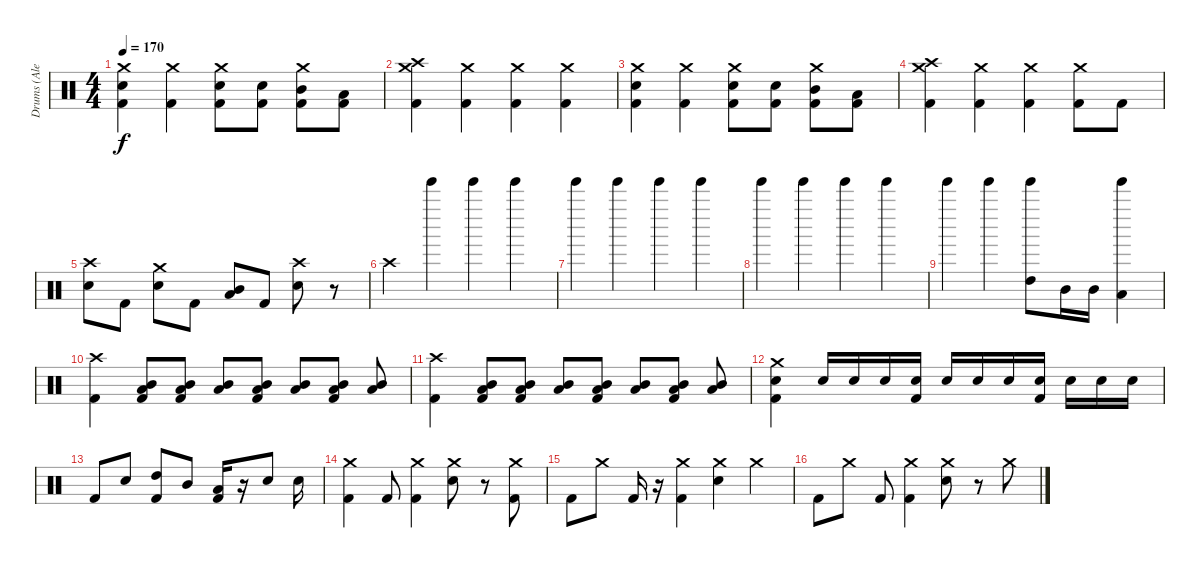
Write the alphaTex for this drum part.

\track ("Drums (Alex Shelnutt)" "Drums (Ale") {instrument percussion}
\staff {score}
\articulation defaults
\ts (4 4)
\tempo 170
\clef neutral
\ks c
("Crash medium (hit)" "Electric Snare (hit)" "Kick (hit) 2").4{dy f} ("Crash medium (hit)" "Kick (hit) 2").4 ("Crash medium (hit)" "Electric Snare (hit)" "Kick (hit) 2").8 ("Electric Snare (hit)" "Kick (hit) 2").8 ("Crash medium (hit)" "Mid Tom (hit)" "Kick (hit) 2").8 ("Low Tom (hit)" "Kick (hit) 2").8 |
("Crash high (hit)" "Crash medium (hit)" "Kick (hit) 2").4 ("Crash medium (hit)" "Kick (hit) 2").4 ("Crash medium (hit)" "Kick (hit) 2").4 ("Crash medium (hit)" "Kick (hit) 2").4 |
("Crash medium (hit)" "Electric Snare (hit)" "Kick (hit) 2").4 ("Crash medium (hit)" "Kick (hit) 2").4 ("Crash medium (hit)" "Electric Snare (hit)" "Kick (hit) 2").8 ("Electric Snare (hit)" "Kick (hit) 2").8 ("Crash medium (hit)" "Mid Tom (hit)" "Kick (hit) 2").8 ("Low Tom (hit)" "Kick (hit) 2").8 |
("Crash high (hit)" "Crash medium (hit)" "Kick (hit) 2").4 ("Crash medium (hit)" "Kick (hit) 2").4 ("Crash medium (hit)" "Kick (hit) 2").4 ("Crash medium (hit)" "Kick (hit) 2").8 "Kick (hit) 2".8 |
("Crash high (hit)" "Electric Snare (hit)").8 "Kick (hit) 2".8 ("Crash medium (hit)" "Electric Snare (hit)").8 "Kick (hit) 2".8 ("Mid Tom (hit)" "Low Tom (hit)").8 "Kick (hit) 2".8 ("Crash high (hit)" "Electric Snare (hit)").8 r.8 |
"Crash high (hit)".4 "Tinkle Bell (hit)".4 "Tinkle Bell (hit)".4 "Tinkle Bell (hit)".4 |
"Tinkle Bell (hit)".4 "Tinkle Bell (hit)".4 "Tinkle Bell (hit)".4 "Tinkle Bell (hit)".4 |
"Tinkle Bell (hit)".4 "Tinkle Bell (hit)".4 "Tinkle Bell (hit)".4 "Tinkle Bell (hit)".4 |
"Tinkle Bell (hit)".4 "Tinkle Bell (hit)".4 ("Tinkle Bell (hit)" "High Tom (hit)").8 "Mid Tom (hit)".16 "Mid Tom (hit)".16 ("Tinkle Bell (hit)" "Low Tom (hit)").4 |
("Crash high (hit)" "Kick (hit) 2").4 ("Mid Tom (hit)" "Low Tom (hit)" "Kick (hit) 2").8 ("Mid Tom (hit)" "Low Tom (hit)" "Kick (hit) 2").8 ("Mid Tom (hit)" "Low Tom (hit)").8 ("Mid Tom (hit)" "Low Tom (hit)" "Kick (hit) 2").8 ("Mid Tom (hit)" "Low Tom (hit)").8 ("Mid Tom (hit)" "Low Tom (hit)" "Kick (hit) 2").8 ("Mid Tom (hit)" "Low Tom (hit)").8 |
("Crash high (hit)" "Kick (hit) 2").4 ("Mid Tom (hit)" "Low Tom (hit)" "Kick (hit) 2").8 ("Mid Tom (hit)" "Low Tom (hit)" "Kick (hit) 2").8 ("Mid Tom (hit)" "Low Tom (hit)").8 ("Mid Tom (hit)" "Low Tom (hit)" "Kick (hit) 2").8 ("Mid Tom (hit)" "Low Tom (hit)").8 ("Mid Tom (hit)" "Low Tom (hit)" "Kick (hit) 2").8 ("Mid Tom (hit)" "Low Tom (hit)").8 |
("Crash medium (hit)" "Electric Snare (hit)" "Kick (hit) 2").4 "Electric Snare (hit)".16 "Electric Snare (hit)".16 "Electric Snare (hit)".16 ("Electric Snare (hit)" "Kick (hit) 2").16 "Electric Snare (hit)".16 "Electric Snare (hit)".16 "Electric Snare (hit)".16 ("Electric Snare (hit)" "Kick (hit) 2").16 "Electric Snare (hit)".16 "Electric Snare (hit)".16 "Electric Snare (hit)".16 |
"Kick (hit) 2".8 "Electric Snare (hit)".8 ("High Tom (hit)" "Kick (hit) 2").8 "Mid Tom (hit)".8 ("Low Tom (hit)" "Kick (hit) 2").16 r.16 "Electric Snare (hit)".8 "Electric Snare (hit)".16 |
("Crash medium (hit)" "Kick (hit) 2").4 "Kick (hit) 2".8 ("Crash medium (hit)" "Kick (hit) 2").4 ("Crash medium (hit)" "Electric Snare (hit)").8 r.8 ("Crash medium (hit)" "Kick (hit) 2").8 |
"Kick (hit) 2".8 "Crash medium (hit)".8 "Kick (hit) 2".16 r.16 ("Crash medium (hit)" "Kick (hit) 2").4 ("Crash medium (hit)" "Electric Snare (hit)").4 "Crash medium (hit)".4 |
"Kick (hit) 2".8 "Crash medium (hit)".8 "Kick (hit) 2".8 ("Crash medium (hit)" "Kick (hit) 2").4 ("Crash medium (hit)" "Electric Snare (hit)").8 r.8 "Crash medium (hit)".8
